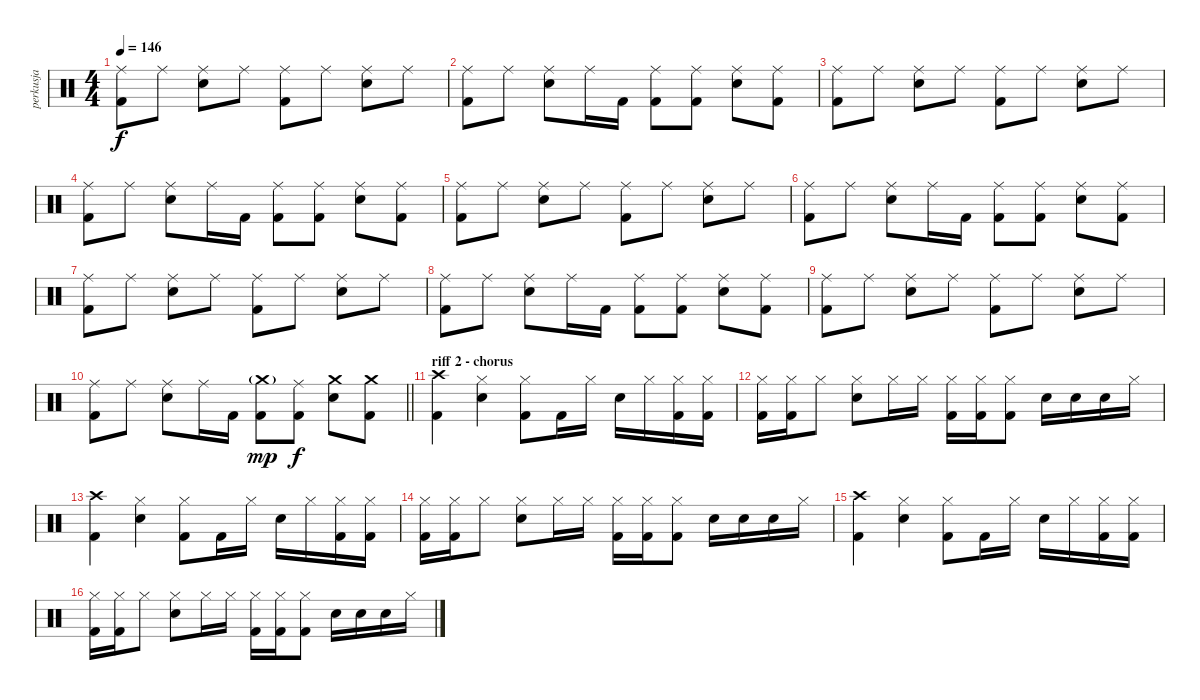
\track ("perkusja" "perkusja") {instrument percussion}
\staff {score}
\articulation defaults
\ts (4 4)
\tempo 146
\clef neutral
\ks c
("Ride (middle)" "Kick (hit) 2").8{dy f} "Ride (middle)".8 ("Ride (middle)" "Electric Snare (hit)").8 "Ride (middle)".8 ("Ride (middle)" "Kick (hit) 2").8 "Ride (middle)".8 ("Ride (middle)" "Electric Snare (hit)").8 "Ride (middle)".8 |
("Ride (middle)" "Kick (hit) 2").8 "Ride (middle)".8 ("Ride (middle)" "Electric Snare (hit)").8 "Ride (middle)".16 "Kick (hit) 2".16 ("Ride (middle)" "Kick (hit) 2").8 ("Ride (middle)" "Kick (hit) 2").8 ("Ride (middle)" "Electric Snare (hit)").8 ("Ride (middle)" "Kick (hit) 2").8 |
("Ride (middle)" "Kick (hit) 2").8 "Ride (middle)".8 ("Ride (middle)" "Electric Snare (hit)").8 "Ride (middle)".8 ("Ride (middle)" "Kick (hit) 2").8 "Ride (middle)".8 ("Ride (middle)" "Electric Snare (hit)").8 "Ride (middle)".8 |
("Ride (middle)" "Kick (hit) 2").8 "Ride (middle)".8 ("Ride (middle)" "Electric Snare (hit)").8 "Ride (middle)".16 "Kick (hit) 2".16 ("Ride (middle)" "Kick (hit) 2").8 ("Ride (middle)" "Kick (hit) 2").8 ("Ride (middle)" "Electric Snare (hit)").8 ("Ride (middle)" "Kick (hit) 2").8 |
("Ride (middle)" "Kick (hit) 2").8 "Ride (middle)".8 ("Ride (middle)" "Electric Snare (hit)").8 "Ride (middle)".8 ("Ride (middle)" "Kick (hit) 2").8 "Ride (middle)".8 ("Ride (middle)" "Electric Snare (hit)").8 "Ride (middle)".8 |
("Ride (middle)" "Kick (hit) 2").8 "Ride (middle)".8 ("Ride (middle)" "Electric Snare (hit)").8 "Ride (middle)".16 "Kick (hit) 2".16 ("Ride (middle)" "Kick (hit) 2").8 ("Ride (middle)" "Kick (hit) 2").8 ("Ride (middle)" "Electric Snare (hit)").8 ("Ride (middle)" "Kick (hit) 2").8 |
("Ride (middle)" "Kick (hit) 2").8 "Ride (middle)".8 ("Ride (middle)" "Electric Snare (hit)").8 "Ride (middle)".8 ("Ride (middle)" "Kick (hit) 2").8 "Ride (middle)".8 ("Ride (middle)" "Electric Snare (hit)").8 "Ride (middle)".8 |
("Ride (middle)" "Kick (hit) 2").8 "Ride (middle)".8 ("Ride (middle)" "Electric Snare (hit)").8 "Ride (middle)".16 "Kick (hit) 2".16 ("Ride (middle)" "Kick (hit) 2").8 ("Ride (middle)" "Kick (hit) 2").8 ("Ride (middle)" "Electric Snare (hit)").8 ("Ride (middle)" "Kick (hit) 2").8 |
("Ride (middle)" "Kick (hit) 2").8 "Ride (middle)".8 ("Ride (middle)" "Electric Snare (hit)").8 "Ride (middle)".8 ("Ride (middle)" "Kick (hit) 2").8 "Ride (middle)".8 ("Ride (middle)" "Electric Snare (hit)").8 "Ride (middle)".8 |
\barLineRight lightlight
("Ride (middle)" "Kick (hit) 2").8 "Ride (middle)".8 ("Ride (middle)" "Electric Snare (hit)").8 "Ride (middle)".16 "Kick (hit) 2".16 ("Crash medium (hit)"{g} "Kick (hit) 2").8{dy mp} ("Ride (middle)" "Kick (hit) 2").8{dy f} ("Crash medium (hit)" "Electric Snare (hit)").8 ("Crash medium (hit)" "Kick (hit) 2").8 |
\section ("" "riff 2 - chorus")
("Crash high (hit)" "Kick (hit) 2").4 ("Hi-Hat (closed)" "Electric Snare (hit)").4 ("Hi-Hat (closed)" "Kick (hit) 2").8 "Kick (hit) 2".16 "Hi-Hat (closed)".16 "Electric Snare (hit)".16 "Hi-Hat (closed)".16 ("Hi-Hat (closed)" "Kick (hit) 2").16 ("Hi-Hat (closed)" "Kick (hit) 2").16 |
("Hi-Hat (closed)" "Kick (hit) 2").16 ("Hi-Hat (closed)" "Kick (hit) 2").16 "Hi-Hat (closed)".8 ("Hi-Hat (closed)" "Electric Snare (hit)").8 "Hi-Hat (closed)".16 "Hi-Hat (closed)".16 ("Hi-Hat (closed)" "Kick (hit) 2").16 ("Hi-Hat (closed)" "Kick (hit) 2").16 ("Hi-Hat (closed)" "Kick (hit) 2").8 "Electric Snare (hit)".16 "Electric Snare (hit)".16 "Electric Snare (hit)".16 "Hi-Hat (closed)".16 |
("Crash high (hit)" "Kick (hit) 2").4 ("Hi-Hat (closed)" "Electric Snare (hit)").4 ("Hi-Hat (closed)" "Kick (hit) 2").8 "Kick (hit) 2".16 "Hi-Hat (closed)".16 "Electric Snare (hit)".16 "Hi-Hat (closed)".16 ("Hi-Hat (closed)" "Kick (hit) 2").16 ("Hi-Hat (closed)" "Kick (hit) 2").16 |
("Hi-Hat (closed)" "Kick (hit) 2").16 ("Hi-Hat (closed)" "Kick (hit) 2").16 "Hi-Hat (closed)".8 ("Hi-Hat (closed)" "Electric Snare (hit)").8 "Hi-Hat (closed)".16 "Hi-Hat (closed)".16 ("Hi-Hat (closed)" "Kick (hit) 2").16 ("Hi-Hat (closed)" "Kick (hit) 2").16 ("Hi-Hat (closed)" "Kick (hit) 2").8 "Electric Snare (hit)".16 "Electric Snare (hit)".16 "Electric Snare (hit)".16 "Hi-Hat (closed)".16 |
("Crash high (hit)" "Kick (hit) 2").4 ("Hi-Hat (closed)" "Electric Snare (hit)").4 ("Hi-Hat (closed)" "Kick (hit) 2").8 "Kick (hit) 2".16 "Hi-Hat (closed)".16 "Electric Snare (hit)".16 "Hi-Hat (closed)".16 ("Hi-Hat (closed)" "Kick (hit) 2").16 ("Hi-Hat (closed)" "Kick (hit) 2").16 |
("Hi-Hat (closed)" "Kick (hit) 2").16 ("Hi-Hat (closed)" "Kick (hit) 2").16 "Hi-Hat (closed)".8 ("Hi-Hat (closed)" "Electric Snare (hit)").8 "Hi-Hat (closed)".16 "Hi-Hat (closed)".16 ("Hi-Hat (closed)" "Kick (hit) 2").16 ("Hi-Hat (closed)" "Kick (hit) 2").16 ("Hi-Hat (closed)" "Kick (hit) 2").8 "Electric Snare (hit)".16 "Electric Snare (hit)".16 "Electric Snare (hit)".16 "Hi-Hat (closed)".16
